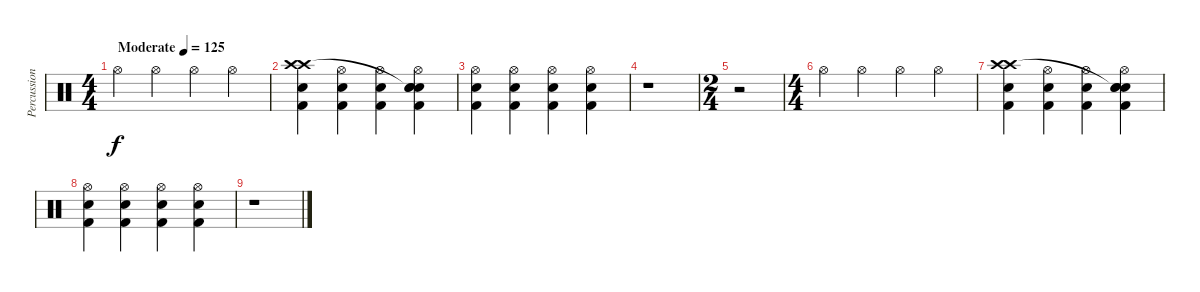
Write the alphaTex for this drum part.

\track ("Percussion" "Percussion") {instrument percussion}
\staff {score}
\articulation defaults
\ts (4 4)
\tempo (125 "Moderate")
\clef neutral
\ks c "Hi-Hat (open)".4{dy f} "Hi-Hat (open)".4 "Hi-Hat (open)".4 "Hi-Hat (open)".4
|
("Snare (hit) 2" "Kick (hit) 2" "Crash high (hit)" "Crash high (hit)").4 ("Snare (hit) 2" "Hi-Hat (open)" "Kick (hit) 2").4 ("Snare (hit) 2" "Hi-Hat (open)" "Kick (hit) 2").4 ("Snare (hit) 2" "Hi-Hat (open)" "Kick (hit) 2" "Snare (hit)"{t} "Snare (hit)").4 |
("Snare (hit) 2" "Hi-Hat (open)" "Kick (hit) 2").4 ("Snare (hit) 2" "Hi-Hat (open)" "Kick (hit) 2").4 ("Snare (hit) 2" "Hi-Hat (open)" "Kick (hit) 2").4 ("Snare (hit) 2" "Hi-Hat (open)" "Kick (hit) 2").4 |
r.1 |
\ts (2 4)
r.2 |
\ts (4 4)
"Hi-Hat (open)".4 "Hi-Hat (open)".4 "Hi-Hat (open)".4 "Hi-Hat (open)".4 |
("Snare (hit) 2" "Kick (hit) 2" "Crash high (hit)" "Crash high (hit)").4 ("Snare (hit) 2" "Hi-Hat (open)" "Kick (hit) 2").4 ("Snare (hit) 2" "Hi-Hat (open)" "Kick (hit) 2").4 ("Snare (hit) 2" "Hi-Hat (open)" "Kick (hit) 2" "Snare (hit)"{t} "Snare (hit)").4 |
("Snare (hit) 2" "Hi-Hat (open)" "Kick (hit) 2").4 ("Snare (hit) 2" "Hi-Hat (open)" "Kick (hit) 2").4 ("Snare (hit) 2" "Hi-Hat (open)" "Kick (hit) 2").4 ("Snare (hit) 2" "Hi-Hat (open)" "Kick (hit) 2").4 |
r.1
